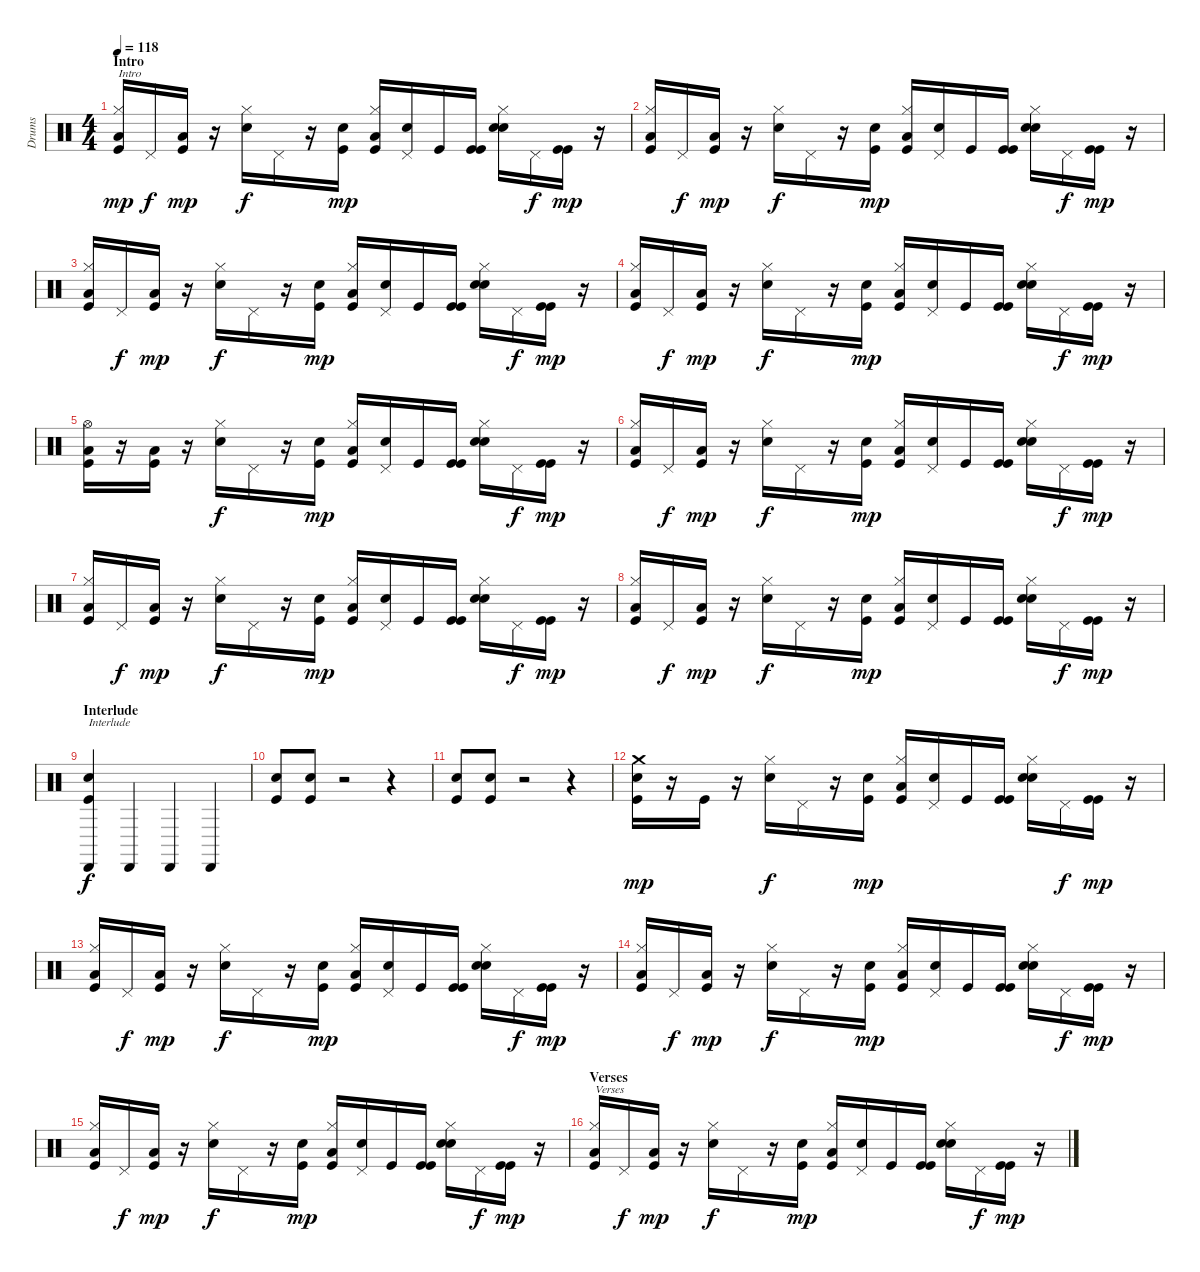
\track ("Drums" "Drums") {instrument percussion}
\staff {score}
\articulation defaults
\ts (4 4)
\section ("" "Intro")
\tempo 118
\clef neutral
\ks c
("Low Floor Tom (hit)" "Hi-Hat (closed)" "Kick (hit)").16{txt "Intro" dy mp} "Pedal Hi-Hat (hit)".16{dy f} ("Low Floor Tom (hit)" "Kick (hit)").16{dy mp} r.16 ("Electric Snare (hit)" "Hi-Hat (closed)").16{dy f} "Pedal Hi-Hat (hit)".16 r.16 ("Kick (hit)" "Electric Snare (hit)").16{dy mp} ("Low Floor Tom (hit)" "Hi-Hat (closed)" "Kick (hit)").16 ("Pedal Hi-Hat (hit)" "Electric Snare (hit)").16 "Kick (hit)".16 ("Kick (hit)" "Kick (hit)").16 ("Electric Snare (hit)" "Hi-Hat (closed)" "Electric Snare (hit)").16 "Pedal Hi-Hat (hit)".16{dy f} ("Kick (hit)" "Kick (hit)").16{dy mp} r.16 |
("Low Floor Tom (hit)" "Hi-Hat (closed)" "Kick (hit)").16 "Pedal Hi-Hat (hit)".16{dy f} ("Low Floor Tom (hit)" "Kick (hit)").16{dy mp} r.16 ("Electric Snare (hit)" "Hi-Hat (closed)").16{dy f} "Pedal Hi-Hat (hit)".16 r.16 ("Kick (hit)" "Electric Snare (hit)").16{dy mp} ("Low Floor Tom (hit)" "Hi-Hat (closed)" "Kick (hit)").16 ("Pedal Hi-Hat (hit)" "Electric Snare (hit)").16 "Kick (hit)".16 ("Kick (hit)" "Kick (hit)").16 ("Electric Snare (hit)" "Hi-Hat (closed)" "Electric Snare (hit)").16 "Pedal Hi-Hat (hit)".16{dy f} ("Kick (hit)" "Kick (hit)").16{dy mp} r.16 |
("Low Floor Tom (hit)" "Hi-Hat (closed)" "Kick (hit)").16 "Pedal Hi-Hat (hit)".16{dy f} ("Low Floor Tom (hit)" "Kick (hit)").16{dy mp} r.16 ("Electric Snare (hit)" "Hi-Hat (closed)").16{dy f} "Pedal Hi-Hat (hit)".16 r.16 ("Kick (hit)" "Electric Snare (hit)").16{dy mp} ("Low Floor Tom (hit)" "Hi-Hat (closed)" "Kick (hit)").16 ("Pedal Hi-Hat (hit)" "Electric Snare (hit)").16 "Kick (hit)".16 ("Kick (hit)" "Kick (hit)").16 ("Electric Snare (hit)" "Hi-Hat (closed)" "Electric Snare (hit)").16 "Pedal Hi-Hat (hit)".16{dy f} ("Kick (hit)" "Kick (hit)").16{dy mp} r.16 |
("Low Floor Tom (hit)" "Hi-Hat (closed)" "Kick (hit)").16 "Pedal Hi-Hat (hit)".16{dy f} ("Low Floor Tom (hit)" "Kick (hit)").16{dy mp} r.16 ("Electric Snare (hit)" "Hi-Hat (closed)").16{dy f} "Pedal Hi-Hat (hit)".16 r.16 ("Kick (hit)" "Electric Snare (hit)").16{dy mp} ("Low Floor Tom (hit)" "Hi-Hat (closed)" "Kick (hit)").16 ("Pedal Hi-Hat (hit)" "Electric Snare (hit)").16 "Kick (hit)".16 ("Kick (hit)" "Kick (hit)").16 ("Electric Snare (hit)" "Hi-Hat (closed)" "Electric Snare (hit)").16 "Pedal Hi-Hat (hit)".16{dy f} ("Kick (hit)" "Kick (hit)").16{dy mp} r.16 |
("Low Floor Tom (hit)" "Hi-Hat (open)" "Kick (hit)").16 r.16 ("Low Floor Tom (hit)" "Kick (hit)").16 r.16 ("Electric Snare (hit)" "Hi-Hat (closed)").16{dy f} "Pedal Hi-Hat (hit)".16 r.16 ("Kick (hit)" "Electric Snare (hit)").16{dy mp} ("Low Floor Tom (hit)" "Hi-Hat (closed)" "Kick (hit)").16 ("Pedal Hi-Hat (hit)" "Electric Snare (hit)").16 "Kick (hit)".16 ("Kick (hit)" "Kick (hit)").16 ("Electric Snare (hit)" "Hi-Hat (closed)" "Electric Snare (hit)").16 "Pedal Hi-Hat (hit)".16{dy f} ("Kick (hit)" "Kick (hit)").16{dy mp} r.16 |
("Low Floor Tom (hit)" "Hi-Hat (closed)" "Kick (hit)").16 "Pedal Hi-Hat (hit)".16{dy f} ("Low Floor Tom (hit)" "Kick (hit)").16{dy mp} r.16 ("Electric Snare (hit)" "Hi-Hat (closed)").16{dy f} "Pedal Hi-Hat (hit)".16 r.16 ("Kick (hit)" "Electric Snare (hit)").16{dy mp} ("Low Floor Tom (hit)" "Hi-Hat (closed)" "Kick (hit)").16 ("Pedal Hi-Hat (hit)" "Electric Snare (hit)").16 "Kick (hit)".16 ("Kick (hit)" "Kick (hit)").16 ("Electric Snare (hit)" "Hi-Hat (closed)" "Electric Snare (hit)").16 "Pedal Hi-Hat (hit)".16{dy f} ("Kick (hit)" "Kick (hit)").16{dy mp} r.16 |
("Low Floor Tom (hit)" "Hi-Hat (closed)" "Kick (hit)").16 "Pedal Hi-Hat (hit)".16{dy f} ("Low Floor Tom (hit)" "Kick (hit)").16{dy mp} r.16 ("Electric Snare (hit)" "Hi-Hat (closed)").16{dy f} "Pedal Hi-Hat (hit)".16 r.16 ("Kick (hit)" "Electric Snare (hit)").16{dy mp} ("Low Floor Tom (hit)" "Hi-Hat (closed)" "Kick (hit)").16 ("Pedal Hi-Hat (hit)" "Electric Snare (hit)").16 "Kick (hit)".16 ("Kick (hit)" "Kick (hit)").16 ("Electric Snare (hit)" "Hi-Hat (closed)" "Electric Snare (hit)").16 "Pedal Hi-Hat (hit)".16{dy f} ("Kick (hit)" "Kick (hit)").16{dy mp} r.16 |
("Low Floor Tom (hit)" "Hi-Hat (closed)" "Kick (hit)").16 "Pedal Hi-Hat (hit)".16{dy f} ("Low Floor Tom (hit)" "Kick (hit)").16{dy mp} r.16 ("Electric Snare (hit)" "Hi-Hat (closed)").16{dy f} "Pedal Hi-Hat (hit)".16 r.16 ("Kick (hit)" "Electric Snare (hit)").16{dy mp} ("Low Floor Tom (hit)" "Hi-Hat (closed)" "Kick (hit)").16 ("Pedal Hi-Hat (hit)" "Electric Snare (hit)").16 "Kick (hit)".16 ("Kick (hit)" "Kick (hit)").16 ("Electric Snare (hit)" "Hi-Hat (closed)" "Electric Snare (hit)").16 "Pedal Hi-Hat (hit)".16{dy f} ("Kick (hit)" "Kick (hit)").16{dy mp} r.16 |
\section ("" "Interlude")
("Cabasa (hit)" "Kick (hit)" "Electric Snare (hit)").4{txt "Interlude" dy f} "Cabasa (hit)".4 "Cabasa (hit)".4 "Cabasa (hit)".4 |
("Kick (hit)" "Electric Snare (hit)").8 ("Kick (hit)" "Electric Snare (hit)").8 r.2 r.4 |
("Kick (hit)" "Electric Snare (hit)").8 ("Kick (hit)" "Electric Snare (hit)").8 r.2 r.4 |
("Electric Snare (hit)" "Crash medium (hit)" "Kick (hit)").16{dy mp} r.16 "Kick (hit)".16 r.16 ("Electric Snare (hit)" "Hi-Hat (closed)").16{dy f} "Pedal Hi-Hat (hit)".16 r.16 ("Kick (hit)" "Electric Snare (hit)").16{dy mp} ("Low Floor Tom (hit)" "Hi-Hat (closed)" "Kick (hit)").16 ("Pedal Hi-Hat (hit)" "Electric Snare (hit)").16 "Kick (hit)".16 ("Kick (hit)" "Kick (hit)").16 ("Electric Snare (hit)" "Hi-Hat (closed)" "Electric Snare (hit)").16 "Pedal Hi-Hat (hit)".16{dy f} ("Kick (hit)" "Kick (hit)").16{dy mp} r.16 |
("Low Floor Tom (hit)" "Hi-Hat (closed)" "Kick (hit)").16 "Pedal Hi-Hat (hit)".16{dy f} ("Low Floor Tom (hit)" "Kick (hit)").16{dy mp} r.16 ("Electric Snare (hit)" "Hi-Hat (closed)").16{dy f} "Pedal Hi-Hat (hit)".16 r.16 ("Kick (hit)" "Electric Snare (hit)").16{dy mp} ("Low Floor Tom (hit)" "Hi-Hat (closed)" "Kick (hit)").16 ("Pedal Hi-Hat (hit)" "Electric Snare (hit)").16 "Kick (hit)".16 ("Kick (hit)" "Kick (hit)").16 ("Electric Snare (hit)" "Hi-Hat (closed)" "Electric Snare (hit)").16 "Pedal Hi-Hat (hit)".16{dy f} ("Kick (hit)" "Kick (hit)").16{dy mp} r.16 |
("Low Floor Tom (hit)" "Hi-Hat (closed)" "Kick (hit)").16 "Pedal Hi-Hat (hit)".16{dy f} ("Low Floor Tom (hit)" "Kick (hit)").16{dy mp} r.16 ("Electric Snare (hit)" "Hi-Hat (closed)").16{dy f} "Pedal Hi-Hat (hit)".16 r.16 ("Kick (hit)" "Electric Snare (hit)").16{dy mp} ("Low Floor Tom (hit)" "Hi-Hat (closed)" "Kick (hit)").16 ("Pedal Hi-Hat (hit)" "Electric Snare (hit)").16 "Kick (hit)".16 ("Kick (hit)" "Kick (hit)").16 ("Electric Snare (hit)" "Hi-Hat (closed)" "Electric Snare (hit)").16 "Pedal Hi-Hat (hit)".16{dy f} ("Kick (hit)" "Kick (hit)").16{dy mp} r.16 |
("Low Floor Tom (hit)" "Hi-Hat (closed)" "Kick (hit)").16 "Pedal Hi-Hat (hit)".16{dy f} ("Low Floor Tom (hit)" "Kick (hit)").16{dy mp} r.16 ("Electric Snare (hit)" "Hi-Hat (closed)").16{dy f} "Pedal Hi-Hat (hit)".16 r.16 ("Kick (hit)" "Electric Snare (hit)").16{dy mp} ("Low Floor Tom (hit)" "Hi-Hat (closed)" "Kick (hit)").16 ("Pedal Hi-Hat (hit)" "Electric Snare (hit)").16 "Kick (hit)".16 ("Kick (hit)" "Kick (hit)").16 ("Electric Snare (hit)" "Hi-Hat (closed)" "Electric Snare (hit)").16 "Pedal Hi-Hat (hit)".16{dy f} ("Kick (hit)" "Kick (hit)").16{dy mp} r.16 |
\section ("" "Verses")
("Low Floor Tom (hit)" "Hi-Hat (closed)" "Kick (hit)").16{txt "Verses"} "Pedal Hi-Hat (hit)".16{dy f} ("Low Floor Tom (hit)" "Kick (hit)").16{dy mp} r.16 ("Electric Snare (hit)" "Hi-Hat (closed)").16{dy f} "Pedal Hi-Hat (hit)".16 r.16 ("Kick (hit)" "Electric Snare (hit)").16{dy mp} ("Low Floor Tom (hit)" "Hi-Hat (closed)" "Kick (hit)").16 ("Pedal Hi-Hat (hit)" "Electric Snare (hit)").16 "Kick (hit)".16 ("Kick (hit)" "Kick (hit)").16 ("Electric Snare (hit)" "Hi-Hat (closed)" "Electric Snare (hit)").16 "Pedal Hi-Hat (hit)".16{dy f} ("Kick (hit)" "Kick (hit)").16{dy mp} r.16
